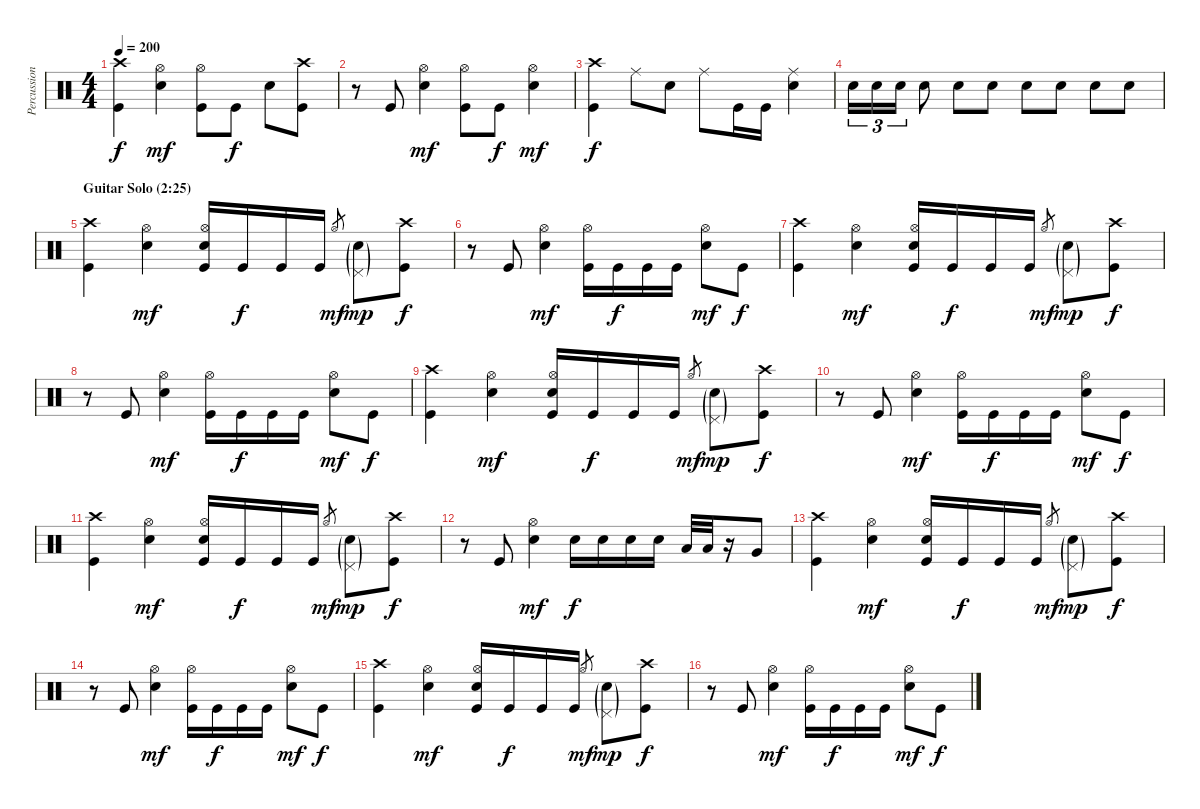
\track ("Percussion" "Percussion") {instrument percussion}
\staff {score}
\articulation defaults
\ts (4 4)
\tempo 200
\clef neutral
\ks c
("Crash high (hit)" "Kick (hit)").4{dy f} ("Hi-Hat (open)" "Snare (hit) 2").4{dy mf} ("Hi-Hat (open)" "Kick (hit)").8 "Kick (hit)".8{dy f} "Snare (hit) 2".8 ("Crash high (hit)" "Kick (hit)").8 |
r.8 "Kick (hit)".8 ("Hi-Hat (open)" "Snare (hit) 2").4{dy mf} ("Hi-Hat (open)" "Kick (hit)").8 "Kick (hit)".8{dy f} ("Hi-Hat (open)" "Snare (hit) 2").4{dy mf} |
("Crash high (hit)" "Kick (hit)").4{dy f} "Ride (middle)".8 "Snare (hit) 2".8 "Ride (middle)".8 "Kick (hit)".16 "Kick (hit)".16 ("Ride (middle)" "Snare (hit) 2").4 |
"Snare (hit) 2".16{tu (3 2)} "Snare (hit) 2".16{tu (3 2)} "Snare (hit) 2".16{tu (3 2)} "Snare (hit) 2".8 "Snare (hit) 2".8 "Snare (hit) 2".8 "Snare (hit) 2".8 "Snare (hit) 2".8 "Snare (hit) 2".8 "Snare (hit) 2".8 |
\section ("" "Guitar Solo (2:25)")
("Crash high (hit)" "Kick (hit)").4 ("Hi-Hat (open)" "Snare (hit) 2").4{dy mf} ("Hi-Hat (open)" "Snare (hit) 2" "Kick (hit)").16 "Kick (hit)".16{dy f} "Kick (hit)".16 "Kick (hit)".16 "Hi-Hat (open)".8{gr dy mf} ("Pedal Hi-Hat (hit)"{g} "Snare (hit) 2"{g}).8{dy mp} ("Crash high (hit)" "Kick (hit)").8{dy f} |
r.8 "Kick (hit)".8 ("Hi-Hat (open)" "Snare (hit) 2").4{dy mf} ("Hi-Hat (open)" "Kick (hit)").16 "Kick (hit)".16{dy f} "Kick (hit)".16 "Kick (hit)".16 ("Hi-Hat (open)" "Snare (hit) 2").8{dy mf} "Kick (hit)".8{dy f} |
("Crash high (hit)" "Kick (hit)").4 ("Hi-Hat (open)" "Snare (hit) 2").4{dy mf} ("Hi-Hat (open)" "Snare (hit) 2" "Kick (hit)").16 "Kick (hit)".16{dy f} "Kick (hit)".16 "Kick (hit)".16 "Hi-Hat (open)".8{gr dy mf} ("Pedal Hi-Hat (hit)"{g} "Snare (hit) 2"{g}).8{dy mp} ("Crash high (hit)" "Kick (hit)").8{dy f} |
r.8 "Kick (hit)".8 ("Hi-Hat (open)" "Snare (hit) 2").4{dy mf} ("Hi-Hat (open)" "Kick (hit)").16 "Kick (hit)".16{dy f} "Kick (hit)".16 "Kick (hit)".16 ("Hi-Hat (open)" "Snare (hit) 2").8{dy mf} "Kick (hit)".8{dy f} |
("Crash high (hit)" "Kick (hit)").4 ("Hi-Hat (open)" "Snare (hit) 2").4{dy mf} ("Hi-Hat (open)" "Snare (hit) 2" "Kick (hit)").16 "Kick (hit)".16{dy f} "Kick (hit)".16 "Kick (hit)".16 "Hi-Hat (open)".8{gr dy mf} ("Pedal Hi-Hat (hit)"{g} "Snare (hit) 2"{g}).8{dy mp} ("Crash high (hit)" "Kick (hit)").8{dy f} |
r.8 "Kick (hit)".8 ("Hi-Hat (open)" "Snare (hit) 2").4{dy mf} ("Hi-Hat (open)" "Kick (hit)").16 "Kick (hit)".16{dy f} "Kick (hit)".16 "Kick (hit)".16 ("Hi-Hat (open)" "Snare (hit) 2").8{dy mf} "Kick (hit)".8{dy f} |
("Crash high (hit)" "Kick (hit)").4 ("Hi-Hat (open)" "Snare (hit) 2").4{dy mf} ("Hi-Hat (open)" "Snare (hit) 2" "Kick (hit)").16 "Kick (hit)".16{dy f} "Kick (hit)".16 "Kick (hit)".16 "Hi-Hat (open)".8{gr dy mf} ("Pedal Hi-Hat (hit)"{g} "Snare (hit) 2"{g}).8{dy mp} ("Crash high (hit)" "Kick (hit)").8{dy f} |
r.8 "Kick (hit)".8 ("Hi-Hat (open)" "Snare (hit) 2").4{dy mf} "Snare (hit) 2".16{dy f} "Snare (hit) 2".16 "Snare (hit) 2".16 "Snare (hit) 2".16 "Low Tom (hit)".32 "Low Tom (hit)".32 r.16 "Very Low Tom (hit)".8 |
("Crash high (hit)" "Kick (hit)").4 ("Hi-Hat (open)" "Snare (hit) 2").4{dy mf} ("Hi-Hat (open)" "Snare (hit) 2" "Kick (hit)").16 "Kick (hit)".16{dy f} "Kick (hit)".16 "Kick (hit)".16 "Hi-Hat (open)".8{gr dy mf} ("Pedal Hi-Hat (hit)"{g} "Snare (hit) 2"{g}).8{dy mp} ("Crash high (hit)" "Kick (hit)").8{dy f} |
r.8 "Kick (hit)".8 ("Hi-Hat (open)" "Snare (hit) 2").4{dy mf} ("Hi-Hat (open)" "Kick (hit)").16 "Kick (hit)".16{dy f} "Kick (hit)".16 "Kick (hit)".16 ("Hi-Hat (open)" "Snare (hit) 2").8{dy mf} "Kick (hit)".8{dy f} |
("Crash high (hit)" "Kick (hit)").4 ("Hi-Hat (open)" "Snare (hit) 2").4{dy mf} ("Hi-Hat (open)" "Snare (hit) 2" "Kick (hit)").16 "Kick (hit)".16{dy f} "Kick (hit)".16 "Kick (hit)".16 "Hi-Hat (open)".8{gr dy mf} ("Pedal Hi-Hat (hit)"{g} "Snare (hit) 2"{g}).8{dy mp} ("Crash high (hit)" "Kick (hit)").8{dy f} |
r.8 "Kick (hit)".8 ("Hi-Hat (open)" "Snare (hit) 2").4{dy mf} ("Hi-Hat (open)" "Kick (hit)").16 "Kick (hit)".16{dy f} "Kick (hit)".16 "Kick (hit)".16 ("Hi-Hat (open)" "Snare (hit) 2").8{dy mf} "Kick (hit)".8{dy f}
